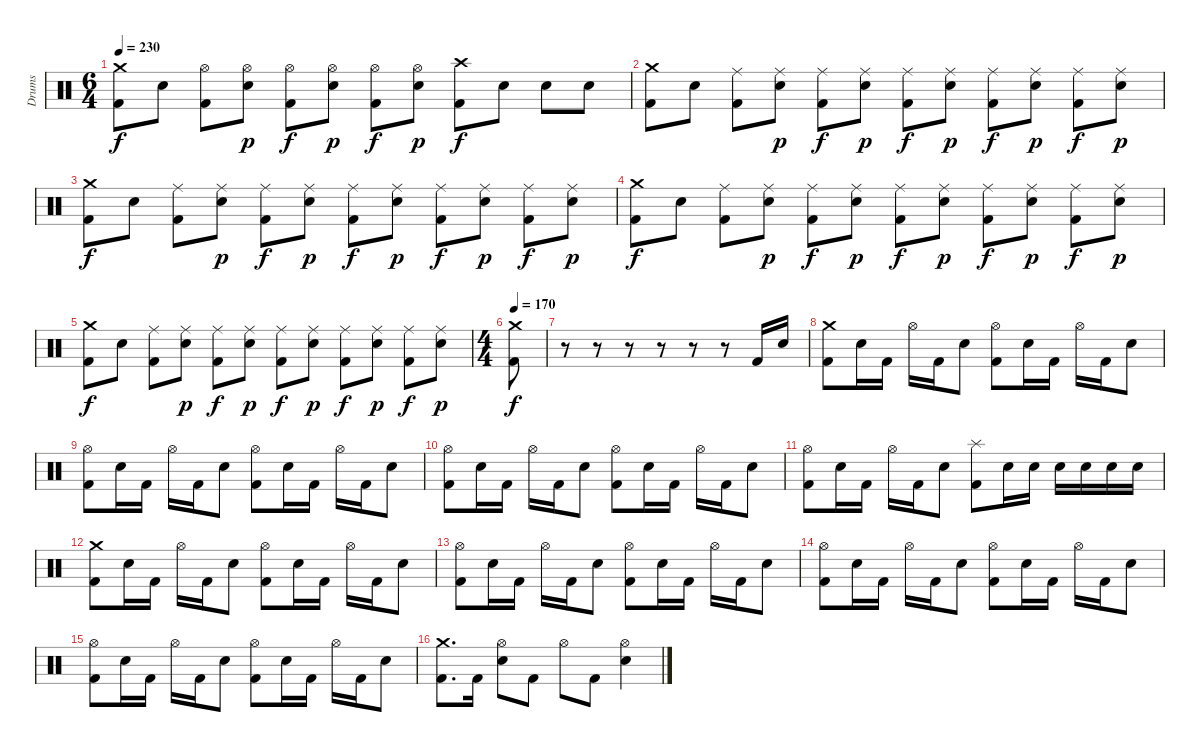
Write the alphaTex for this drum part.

\track ("Drums" "Drums") {instrument percussion}
\staff {score}
\articulation defaults
\ts (6 4)
\tempo 230
\clef neutral
\ks c
("Crash medium (hit)" "Kick (hit) 2").8{dy f} "Snare (hit) 2".8 ("Hi-Hat (open)" "Kick (hit) 2").8 ("Hi-Hat (open)" "Snare (hit) 2").8{dy p} ("Hi-Hat (open)" "Kick (hit) 2").8{dy f} ("Hi-Hat (open)" "Snare (hit) 2").8{dy p} ("Hi-Hat (open)" "Kick (hit) 2").8{dy f} ("Hi-Hat (open)" "Snare (hit) 2").8{dy p} ("Crash high (hit)" "Kick (hit) 2").8{dy f} "Snare (hit) 2".8 "Snare (hit) 2".8 "Snare (hit) 2".8 |
("Crash medium (hit)" "Kick (hit) 2").8 "Snare (hit) 2".8 ("Ride (middle)" "Kick (hit) 2").8 ("Ride (middle)" "Snare (hit) 2").8{dy p} ("Ride (middle)" "Kick (hit) 2").8{dy f} ("Ride (middle)" "Snare (hit) 2").8{dy p} ("Ride (middle)" "Kick (hit) 2").8{dy f} ("Ride (middle)" "Snare (hit) 2").8{dy p} ("Ride (middle)" "Kick (hit) 2").8{dy f} ("Ride (middle)" "Snare (hit) 2").8{dy p} ("Ride (middle)" "Kick (hit) 2").8{dy f} ("Ride (middle)" "Snare (hit) 2").8{dy p} |
("Crash medium (hit)" "Kick (hit) 2").8{dy f} "Snare (hit) 2".8 ("Ride (middle)" "Kick (hit) 2").8 ("Ride (middle)" "Snare (hit) 2").8{dy p} ("Ride (middle)" "Kick (hit) 2").8{dy f} ("Ride (middle)" "Snare (hit) 2").8{dy p} ("Ride (middle)" "Kick (hit) 2").8{dy f} ("Ride (middle)" "Snare (hit) 2").8{dy p} ("Ride (middle)" "Kick (hit) 2").8{dy f} ("Ride (middle)" "Snare (hit) 2").8{dy p} ("Ride (middle)" "Kick (hit) 2").8{dy f} ("Ride (middle)" "Snare (hit) 2").8{dy p} |
("Crash medium (hit)" "Kick (hit) 2").8{dy f} "Snare (hit) 2".8 ("Ride (middle)" "Kick (hit) 2").8 ("Ride (middle)" "Snare (hit) 2").8{dy p} ("Ride (middle)" "Kick (hit) 2").8{dy f} ("Ride (middle)" "Snare (hit) 2").8{dy p} ("Ride (middle)" "Kick (hit) 2").8{dy f} ("Ride (middle)" "Snare (hit) 2").8{dy p} ("Ride (middle)" "Kick (hit) 2").8{dy f} ("Ride (middle)" "Snare (hit) 2").8{dy p} ("Ride (middle)" "Kick (hit) 2").8{dy f} ("Ride (middle)" "Snare (hit) 2").8{dy p} |
("Crash medium (hit)" "Kick (hit) 2").8{dy f} "Snare (hit) 2".8 ("Ride (middle)" "Kick (hit) 2").8 ("Ride (middle)" "Snare (hit) 2").8{dy p} ("Ride (middle)" "Kick (hit) 2").8{dy f} ("Ride (middle)" "Snare (hit) 2").8{dy p} ("Ride (middle)" "Kick (hit) 2").8{dy f} ("Ride (middle)" "Snare (hit) 2").8{dy p} ("Ride (middle)" "Kick (hit) 2").8{dy f} ("Ride (middle)" "Snare (hit) 2").8{dy p} ("Ride (middle)" "Kick (hit) 2").8{dy f} ("Ride (middle)" "Snare (hit) 2").8{dy p} |
\ts (4 4)
\tempo 170
("Crash medium (hit)" "Kick (hit) 2").8{dy f} |
r.8 r.8 r.8 r.8 r.8 r.8 "Kick (hit) 2".16 "Snare (hit) 2".16 |
("Crash medium (hit)" "Kick (hit) 2").8 "Snare (hit) 2".16 "Kick (hit) 2".16 "Hi-Hat (open)".16 "Kick (hit) 2".16 "Snare (hit) 2".8 ("Hi-Hat (open)" "Kick (hit) 2").8 "Snare (hit) 2".16 "Kick (hit) 2".16 "Hi-Hat (open)".16 "Kick (hit) 2".16 "Snare (hit) 2".8 |
("Hi-Hat (open)" "Kick (hit) 2").8 "Snare (hit) 2".16 "Kick (hit) 2".16 "Hi-Hat (open)".16 "Kick (hit) 2".16 "Snare (hit) 2".8 ("Hi-Hat (open)" "Kick (hit) 2").8 "Snare (hit) 2".16 "Kick (hit) 2".16 "Hi-Hat (open)".16 "Kick (hit) 2".16 "Snare (hit) 2".8 |
("Hi-Hat (open)" "Kick (hit) 2").8 "Snare (hit) 2".16 "Kick (hit) 2".16 "Hi-Hat (open)".16 "Kick (hit) 2".16 "Snare (hit) 2".8 ("Hi-Hat (open)" "Kick (hit) 2").8 "Snare (hit) 2".16 "Kick (hit) 2".16 "Hi-Hat (open)".16 "Kick (hit) 2".16 "Snare (hit) 2".8 |
("Hi-Hat (open)" "Kick (hit) 2").8 "Snare (hit) 2".16 "Kick (hit) 2".16 "Hi-Hat (open)".16 "Kick (hit) 2".16 "Snare (hit) 2".8 ("Splash (hit)" "Kick (hit) 2").8 "Snare (hit) 2".16 "Snare (hit) 2".16 "Snare (hit) 2".16 "Snare (hit) 2".16 "Snare (hit) 2".16 "Snare (hit) 2".16 |
("Crash medium (hit)" "Kick (hit) 2").8 "Snare (hit) 2".16 "Kick (hit) 2".16 "Hi-Hat (open)".16 "Kick (hit) 2".16 "Snare (hit) 2".8 ("Hi-Hat (open)" "Kick (hit) 2").8 "Snare (hit) 2".16 "Kick (hit) 2".16 "Hi-Hat (open)".16 "Kick (hit) 2".16 "Snare (hit) 2".8 |
("Hi-Hat (open)" "Kick (hit) 2").8 "Snare (hit) 2".16 "Kick (hit) 2".16 "Hi-Hat (open)".16 "Kick (hit) 2".16 "Snare (hit) 2".8 ("Hi-Hat (open)" "Kick (hit) 2").8 "Snare (hit) 2".16 "Kick (hit) 2".16 "Hi-Hat (open)".16 "Kick (hit) 2".16 "Snare (hit) 2".8 |
("Hi-Hat (open)" "Kick (hit) 2").8 "Snare (hit) 2".16 "Kick (hit) 2".16 "Hi-Hat (open)".16 "Kick (hit) 2".16 "Snare (hit) 2".8 ("Hi-Hat (open)" "Kick (hit) 2").8 "Snare (hit) 2".16 "Kick (hit) 2".16 "Hi-Hat (open)".16 "Kick (hit) 2".16 "Snare (hit) 2".8 |
("Hi-Hat (open)" "Kick (hit) 2").8 "Snare (hit) 2".16 "Kick (hit) 2".16 "Hi-Hat (open)".16 "Kick (hit) 2".16 "Snare (hit) 2".8 ("Hi-Hat (open)" "Kick (hit) 2").8 "Snare (hit) 2".16 "Kick (hit) 2".16 "Hi-Hat (open)".16 "Kick (hit) 2".16 "Snare (hit) 2".8 |
("Crash medium (hit)" "Kick (hit) 2").8{d} "Kick (hit) 2".16 ("Hi-Hat (open)" "Snare (hit) 2").8 "Kick (hit) 2".8 "Hi-Hat (open)".8 "Kick (hit) 2".8 ("Hi-Hat (open)" "Snare (hit) 2").4
